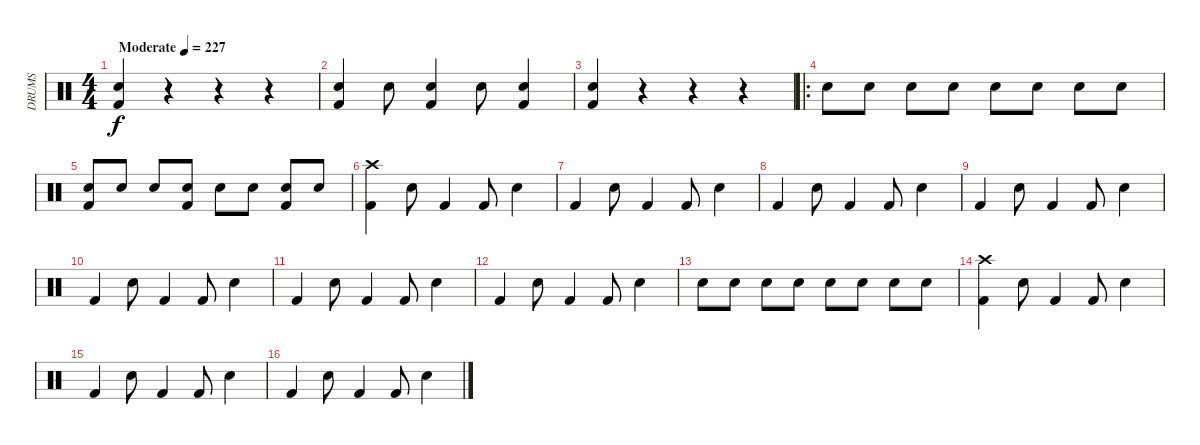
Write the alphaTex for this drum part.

\track ("DRUMS" "DRUMS") {instrument percussion}
\staff {score}
\articulation defaults
\ts (4 4)
\tempo (227 "Moderate")
\clef neutral
\ks c
("Kick (hit) 2" "Snare (hit) 2").4{dy f} r.4 r.4 r.4 |
("Kick (hit) 2" "Snare (hit) 2").4 "Snare (hit) 2".8 ("Kick (hit) 2" "Snare (hit) 2").4 "Snare (hit) 2".8 ("Kick (hit) 2" "Snare (hit) 2").4 |
("Kick (hit) 2" "Snare (hit) 2").4 r.4 r.4 r.4 |
\ro "Snare (hit) 2".8 "Snare (hit) 2".8 "Snare (hit) 2".8 "Snare (hit) 2".8 "Snare (hit) 2".8 "Snare (hit) 2".8 "Snare (hit) 2".8 "Snare (hit) 2".8
|
("Kick (hit) 2" "Snare (hit) 2").8 "Snare (hit) 2".8 "Snare (hit) 2".8 ("Kick (hit) 2" "Snare (hit) 2").8 "Snare (hit) 2".8 "Snare (hit) 2".8 ("Kick (hit) 2" "Snare (hit) 2").8 "Snare (hit) 2".8 |
("Kick (hit) 2" "Crash high (hit)").4 "Snare (hit) 2".8 "Kick (hit) 2".4 "Kick (hit) 2".8 "Snare (hit) 2".4 |
"Kick (hit) 2".4 "Snare (hit) 2".8 "Kick (hit) 2".4 "Kick (hit) 2".8 "Snare (hit) 2".4 |
"Kick (hit) 2".4 "Snare (hit) 2".8 "Kick (hit) 2".4 "Kick (hit) 2".8 "Snare (hit) 2".4 |
"Kick (hit) 2".4 "Snare (hit) 2".8 "Kick (hit) 2".4 "Kick (hit) 2".8 "Snare (hit) 2".4 |
"Kick (hit) 2".4 "Snare (hit) 2".8 "Kick (hit) 2".4 "Kick (hit) 2".8 "Snare (hit) 2".4 |
"Kick (hit) 2".4 "Snare (hit) 2".8 "Kick (hit) 2".4 "Kick (hit) 2".8 "Snare (hit) 2".4 |
"Kick (hit) 2".4 "Snare (hit) 2".8 "Kick (hit) 2".4 "Kick (hit) 2".8 "Snare (hit) 2".4 |
"Snare (hit) 2".8 "Snare (hit) 2".8 "Snare (hit) 2".8 "Snare (hit) 2".8 "Snare (hit) 2".8 "Snare (hit) 2".8 "Snare (hit) 2".8 "Snare (hit) 2".8 |
("Kick (hit) 2" "Crash high (hit)").4 "Snare (hit) 2".8 "Kick (hit) 2".4 "Kick (hit) 2".8 "Snare (hit) 2".4 |
"Kick (hit) 2".4 "Snare (hit) 2".8 "Kick (hit) 2".4 "Kick (hit) 2".8 "Snare (hit) 2".4 |
"Kick (hit) 2".4 "Snare (hit) 2".8 "Kick (hit) 2".4 "Kick (hit) 2".8 "Snare (hit) 2".4
